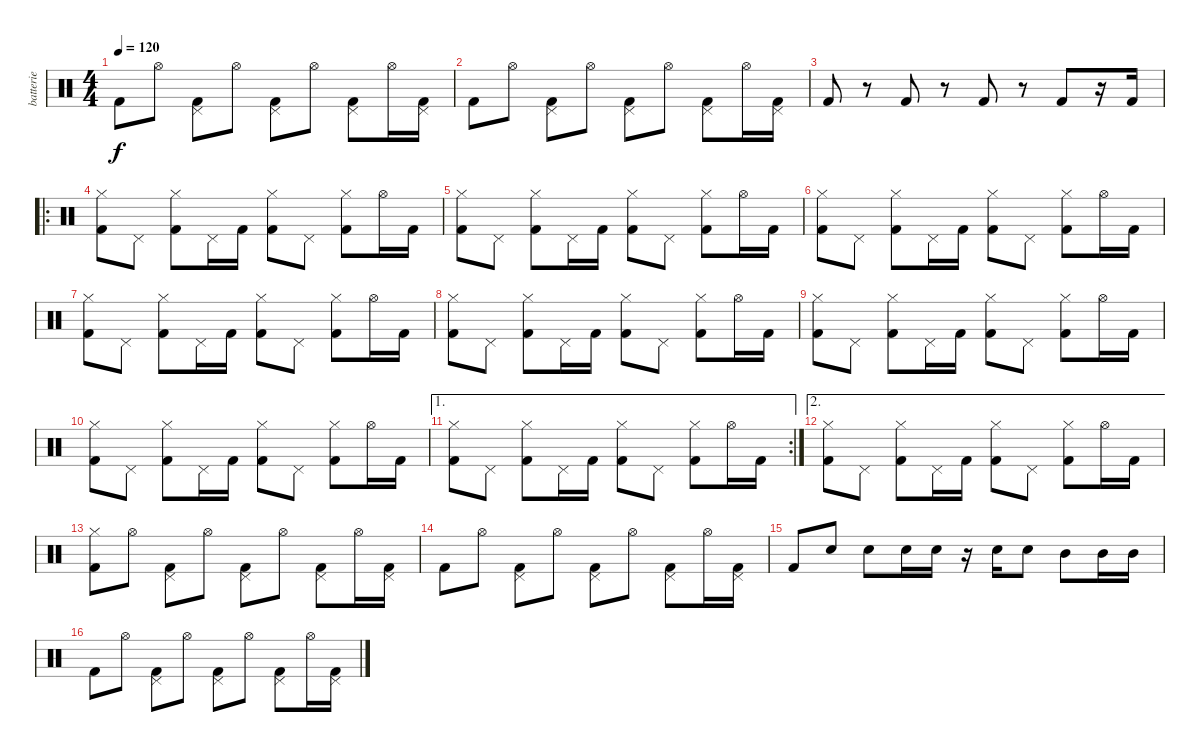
\track ("batterie" "batterie") {instrument percussion}
\staff {score}
\articulation defaults
\ts (4 4)
\tempo 120
\clef neutral
\ks c "Kick (hit) 2".8{dy f} "Hi-Hat (open)".8
("Kick (hit) 2" "Pedal Hi-Hat (hit)").8 "Hi-Hat (open)".8 ("Kick (hit) 2" "Pedal Hi-Hat (hit)").8 "Hi-Hat (open)".8 ("Kick (hit) 2" "Pedal Hi-Hat (hit)").8 "Hi-Hat (open)".16 ("Kick (hit) 2" "Pedal Hi-Hat (hit)").16 |
"Kick (hit) 2".8 "Hi-Hat (open)".8 ("Kick (hit) 2" "Pedal Hi-Hat (hit)").8 "Hi-Hat (open)".8 ("Kick (hit) 2" "Pedal Hi-Hat (hit)").8 "Hi-Hat (open)".8 ("Kick (hit) 2" "Pedal Hi-Hat (hit)").8 "Hi-Hat (open)".16 ("Kick (hit) 2" "Pedal Hi-Hat (hit)").16 |
"Kick (hit) 2".8 r.8 "Kick (hit) 2".8 r.8 "Kick (hit) 2".8 r.8 "Kick (hit) 2".8 r.16 "Kick (hit) 2".16 |
\ro
("Kick (hit) 2" "Hi-Hat (closed)").8 "Pedal Hi-Hat (hit)".8 ("Kick (hit) 2" "Hi-Hat (closed)").8 "Pedal Hi-Hat (hit)".16 "Kick (hit) 2".16 ("Kick (hit) 2" "Hi-Hat (closed)").8 "Pedal Hi-Hat (hit)".8 ("Kick (hit) 2" "Hi-Hat (closed)").8 "Hi-Hat (open)".16 "Kick (hit) 2".16 |
("Kick (hit) 2" "Hi-Hat (closed)").8 "Pedal Hi-Hat (hit)".8 ("Kick (hit) 2" "Hi-Hat (closed)").8 "Pedal Hi-Hat (hit)".16 "Kick (hit) 2".16 ("Kick (hit) 2" "Hi-Hat (closed)").8 "Pedal Hi-Hat (hit)".8 ("Kick (hit) 2" "Hi-Hat (closed)").8 "Hi-Hat (open)".16 "Kick (hit) 2".16 |
("Kick (hit) 2" "Hi-Hat (closed)").8 "Pedal Hi-Hat (hit)".8 ("Kick (hit) 2" "Hi-Hat (closed)").8 "Pedal Hi-Hat (hit)".16 "Kick (hit) 2".16 ("Kick (hit) 2" "Hi-Hat (closed)").8 "Pedal Hi-Hat (hit)".8 ("Kick (hit) 2" "Hi-Hat (closed)").8 "Hi-Hat (open)".16 "Kick (hit) 2".16 |
("Kick (hit) 2" "Hi-Hat (closed)").8 "Pedal Hi-Hat (hit)".8 ("Kick (hit) 2" "Hi-Hat (closed)").8 "Pedal Hi-Hat (hit)".16 "Kick (hit) 2".16 ("Kick (hit) 2" "Hi-Hat (closed)").8 "Pedal Hi-Hat (hit)".8 ("Kick (hit) 2" "Hi-Hat (closed)").8 "Hi-Hat (open)".16 "Kick (hit) 2".16 |
("Kick (hit) 2" "Hi-Hat (closed)").8 "Pedal Hi-Hat (hit)".8 ("Kick (hit) 2" "Hi-Hat (closed)").8 "Pedal Hi-Hat (hit)".16 "Kick (hit) 2".16 ("Kick (hit) 2" "Hi-Hat (closed)").8 "Pedal Hi-Hat (hit)".8 ("Kick (hit) 2" "Hi-Hat (closed)").8 "Hi-Hat (open)".16 "Kick (hit) 2".16 |
("Kick (hit) 2" "Hi-Hat (closed)").8 "Pedal Hi-Hat (hit)".8 ("Kick (hit) 2" "Hi-Hat (closed)").8 "Pedal Hi-Hat (hit)".16 "Kick (hit) 2".16 ("Kick (hit) 2" "Hi-Hat (closed)").8 "Pedal Hi-Hat (hit)".8 ("Kick (hit) 2" "Hi-Hat (closed)").8 "Hi-Hat (open)".16 "Kick (hit) 2".16 |
("Kick (hit) 2" "Hi-Hat (closed)").8 "Pedal Hi-Hat (hit)".8 ("Kick (hit) 2" "Hi-Hat (closed)").8 "Pedal Hi-Hat (hit)".16 "Kick (hit) 2".16 ("Kick (hit) 2" "Hi-Hat (closed)").8 "Pedal Hi-Hat (hit)".8 ("Kick (hit) 2" "Hi-Hat (closed)").8 "Hi-Hat (open)".16 "Kick (hit) 2".16 |
\ae 1
\rc 2
("Kick (hit) 2" "Hi-Hat (closed)").8 "Pedal Hi-Hat (hit)".8 ("Kick (hit) 2" "Hi-Hat (closed)").8 "Pedal Hi-Hat (hit)".16 "Kick (hit) 2".16 ("Kick (hit) 2" "Hi-Hat (closed)").8 "Pedal Hi-Hat (hit)".8 ("Kick (hit) 2" "Hi-Hat (closed)").8 "Hi-Hat (open)".16 "Kick (hit) 2".16 |
\ae 2
("Kick (hit) 2" "Hi-Hat (closed)").8 "Pedal Hi-Hat (hit)".8 ("Kick (hit) 2" "Hi-Hat (closed)").8 "Pedal Hi-Hat (hit)".16 "Kick (hit) 2".16 ("Kick (hit) 2" "Hi-Hat (closed)").8 "Pedal Hi-Hat (hit)".8 ("Kick (hit) 2" "Hi-Hat (closed)").8 "Hi-Hat (open)".16 "Kick (hit) 2".16 |
("Kick (hit) 2" "Hi-Hat (closed)").8 "Hi-Hat (open)".8 ("Kick (hit) 2" "Pedal Hi-Hat (hit)").8 "Hi-Hat (open)".8 ("Kick (hit) 2" "Pedal Hi-Hat (hit)").8 "Hi-Hat (open)".8 ("Kick (hit) 2" "Pedal Hi-Hat (hit)").8 "Hi-Hat (open)".16 ("Kick (hit) 2" "Pedal Hi-Hat (hit)").16 |
"Kick (hit) 2".8 "Hi-Hat (open)".8 ("Kick (hit) 2" "Pedal Hi-Hat (hit)").8 "Hi-Hat (open)".8 ("Kick (hit) 2" "Pedal Hi-Hat (hit)").8 "Hi-Hat (open)".8 ("Kick (hit) 2" "Pedal Hi-Hat (hit)").8 "Hi-Hat (open)".16 ("Kick (hit) 2" "Pedal Hi-Hat (hit)").16 |
"Kick (hit) 2".8 "Electric Snare (hit)".8 "Electric Snare (hit)".8 "Electric Snare (hit)".16 "Electric Snare (hit)".16 r.16 "Electric Snare (hit)".16 "Electric Snare (hit)".8 "Mid Tom (hit)".8 "Mid Tom (hit)".16 "Mid Tom (hit)".16 |
"Kick (hit) 2".8 "Hi-Hat (open)".8 ("Kick (hit) 2" "Pedal Hi-Hat (hit)").8 "Hi-Hat (open)".8 ("Kick (hit) 2" "Pedal Hi-Hat (hit)").8 "Hi-Hat (open)".8 ("Kick (hit) 2" "Pedal Hi-Hat (hit)").8 "Hi-Hat (open)".16 ("Kick (hit) 2" "Pedal Hi-Hat (hit)").16
